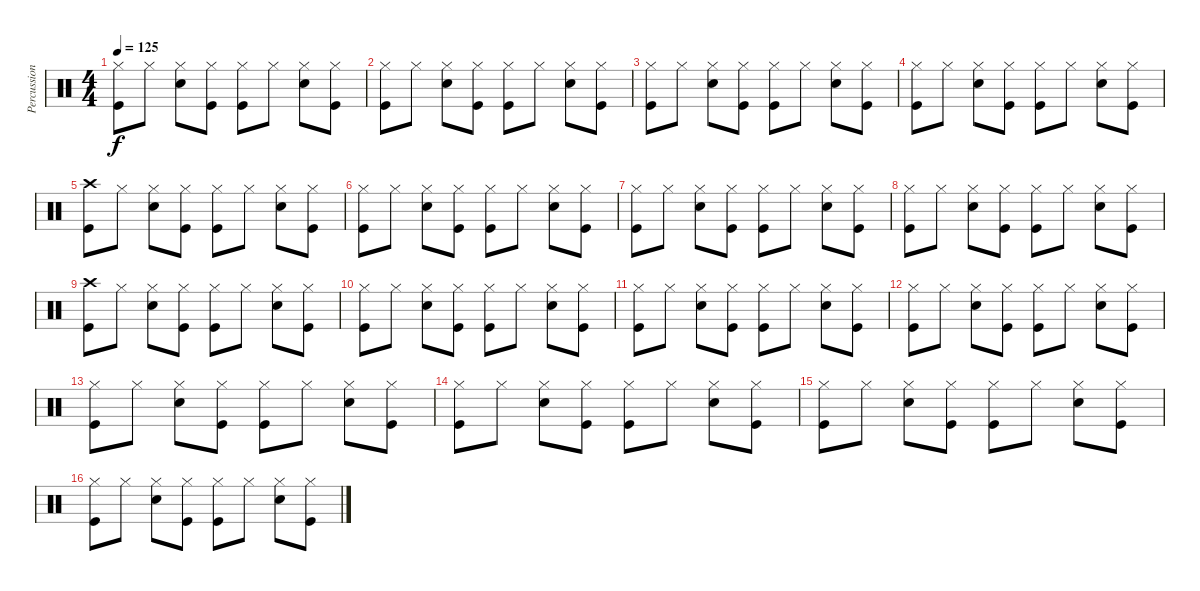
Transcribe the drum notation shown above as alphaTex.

\track ("Percussion" "Percussion") {instrument percussion}
\staff {score}
\articulation defaults
\ts (4 4)
\tempo 125
\clef neutral
\ks c
("Hi-Hat (closed)" "Kick (hit)").8{dy f} "Hi-Hat (closed)".8 ("Hi-Hat (closed)" "Electric Snare (hit)").8 ("Hi-Hat (closed)" "Kick (hit)").8 ("Hi-Hat (closed)" "Kick (hit)").8 "Hi-Hat (closed)".8 ("Hi-Hat (closed)" "Electric Snare (hit)").8 ("Hi-Hat (closed)" "Kick (hit)").8 |
("Hi-Hat (closed)" "Kick (hit)").8 "Hi-Hat (closed)".8 ("Hi-Hat (closed)" "Electric Snare (hit)").8 ("Hi-Hat (closed)" "Kick (hit)").8 ("Hi-Hat (closed)" "Kick (hit)").8 "Hi-Hat (closed)".8 ("Hi-Hat (closed)" "Electric Snare (hit)").8 ("Hi-Hat (closed)" "Kick (hit)").8 |
("Hi-Hat (closed)" "Kick (hit)").8 "Hi-Hat (closed)".8 ("Hi-Hat (closed)" "Electric Snare (hit)").8 ("Hi-Hat (closed)" "Kick (hit)").8 ("Hi-Hat (closed)" "Kick (hit)").8 "Hi-Hat (closed)".8 ("Hi-Hat (closed)" "Electric Snare (hit)").8 ("Hi-Hat (closed)" "Kick (hit)").8 |
("Hi-Hat (closed)" "Kick (hit)").8 "Hi-Hat (closed)".8 ("Hi-Hat (closed)" "Electric Snare (hit)").8 ("Hi-Hat (closed)" "Kick (hit)").8 ("Hi-Hat (closed)" "Kick (hit)").8 "Hi-Hat (closed)".8 ("Hi-Hat (closed)" "Electric Snare (hit)").8 ("Hi-Hat (closed)" "Kick (hit)").8 |
("Crash high (hit)" "Kick (hit)").8 "Hi-Hat (closed)".8 ("Hi-Hat (closed)" "Electric Snare (hit)").8 ("Hi-Hat (closed)" "Kick (hit)").8 ("Hi-Hat (closed)" "Kick (hit)").8 "Hi-Hat (closed)".8 ("Hi-Hat (closed)" "Electric Snare (hit)").8 ("Hi-Hat (closed)" "Kick (hit)").8 |
("Hi-Hat (closed)" "Kick (hit)").8 "Hi-Hat (closed)".8 ("Hi-Hat (closed)" "Electric Snare (hit)").8 ("Hi-Hat (closed)" "Kick (hit)").8 ("Hi-Hat (closed)" "Kick (hit)").8 "Hi-Hat (closed)".8 ("Hi-Hat (closed)" "Electric Snare (hit)").8 ("Hi-Hat (closed)" "Kick (hit)").8 |
("Hi-Hat (closed)" "Kick (hit)").8 "Hi-Hat (closed)".8 ("Hi-Hat (closed)" "Electric Snare (hit)").8 ("Hi-Hat (closed)" "Kick (hit)").8 ("Hi-Hat (closed)" "Kick (hit)").8 "Hi-Hat (closed)".8 ("Hi-Hat (closed)" "Electric Snare (hit)").8 ("Hi-Hat (closed)" "Kick (hit)").8 |
("Hi-Hat (closed)" "Kick (hit)").8 "Hi-Hat (closed)".8 ("Hi-Hat (closed)" "Electric Snare (hit)").8 ("Hi-Hat (closed)" "Kick (hit)").8 ("Hi-Hat (closed)" "Kick (hit)").8 "Hi-Hat (closed)".8 ("Hi-Hat (closed)" "Electric Snare (hit)").8 ("Hi-Hat (closed)" "Kick (hit)").8 |
("Crash high (hit)" "Kick (hit)").8 "Hi-Hat (closed)".8 ("Hi-Hat (closed)" "Electric Snare (hit)").8 ("Hi-Hat (closed)" "Kick (hit)").8 ("Hi-Hat (closed)" "Kick (hit)").8 "Hi-Hat (closed)".8 ("Hi-Hat (closed)" "Electric Snare (hit)").8 ("Hi-Hat (closed)" "Kick (hit)").8 |
("Hi-Hat (closed)" "Kick (hit)").8 "Hi-Hat (closed)".8 ("Hi-Hat (closed)" "Electric Snare (hit)").8 ("Hi-Hat (closed)" "Kick (hit)").8 ("Hi-Hat (closed)" "Kick (hit)").8 "Hi-Hat (closed)".8 ("Hi-Hat (closed)" "Electric Snare (hit)").8 ("Hi-Hat (closed)" "Kick (hit)").8 |
("Hi-Hat (closed)" "Kick (hit)").8 "Hi-Hat (closed)".8 ("Hi-Hat (closed)" "Electric Snare (hit)").8 ("Hi-Hat (closed)" "Kick (hit)").8 ("Hi-Hat (closed)" "Kick (hit)").8 "Hi-Hat (closed)".8 ("Hi-Hat (closed)" "Electric Snare (hit)").8 ("Hi-Hat (closed)" "Kick (hit)").8 |
("Hi-Hat (closed)" "Kick (hit)").8 "Hi-Hat (closed)".8 ("Hi-Hat (closed)" "Electric Snare (hit)").8 ("Hi-Hat (closed)" "Kick (hit)").8 ("Hi-Hat (closed)" "Kick (hit)").8 "Hi-Hat (closed)".8 ("Hi-Hat (closed)" "Electric Snare (hit)").8 ("Hi-Hat (closed)" "Kick (hit)").8 |
("Hi-Hat (closed)" "Kick (hit)").8 "Hi-Hat (closed)".8 ("Hi-Hat (closed)" "Electric Snare (hit)").8 ("Hi-Hat (closed)" "Kick (hit)").8 ("Hi-Hat (closed)" "Kick (hit)").8 "Hi-Hat (closed)".8 ("Hi-Hat (closed)" "Electric Snare (hit)").8 ("Hi-Hat (closed)" "Kick (hit)").8 |
("Hi-Hat (closed)" "Kick (hit)").8 "Hi-Hat (closed)".8 ("Hi-Hat (closed)" "Electric Snare (hit)").8 ("Hi-Hat (closed)" "Kick (hit)").8 ("Hi-Hat (closed)" "Kick (hit)").8 "Hi-Hat (closed)".8 ("Hi-Hat (closed)" "Electric Snare (hit)").8 ("Hi-Hat (closed)" "Kick (hit)").8 |
("Hi-Hat (closed)" "Kick (hit)").8 "Hi-Hat (closed)".8 ("Hi-Hat (closed)" "Electric Snare (hit)").8 ("Hi-Hat (closed)" "Kick (hit)").8 ("Hi-Hat (closed)" "Kick (hit)").8 "Hi-Hat (closed)".8 ("Hi-Hat (closed)" "Electric Snare (hit)").8 ("Hi-Hat (closed)" "Kick (hit)").8 |
("Hi-Hat (closed)" "Kick (hit)").8 "Hi-Hat (closed)".8 ("Hi-Hat (closed)" "Electric Snare (hit)").8 ("Hi-Hat (closed)" "Kick (hit)").8 ("Hi-Hat (closed)" "Kick (hit)").8 "Hi-Hat (closed)".8 ("Hi-Hat (closed)" "Electric Snare (hit)").8 ("Hi-Hat (closed)" "Kick (hit)").8
